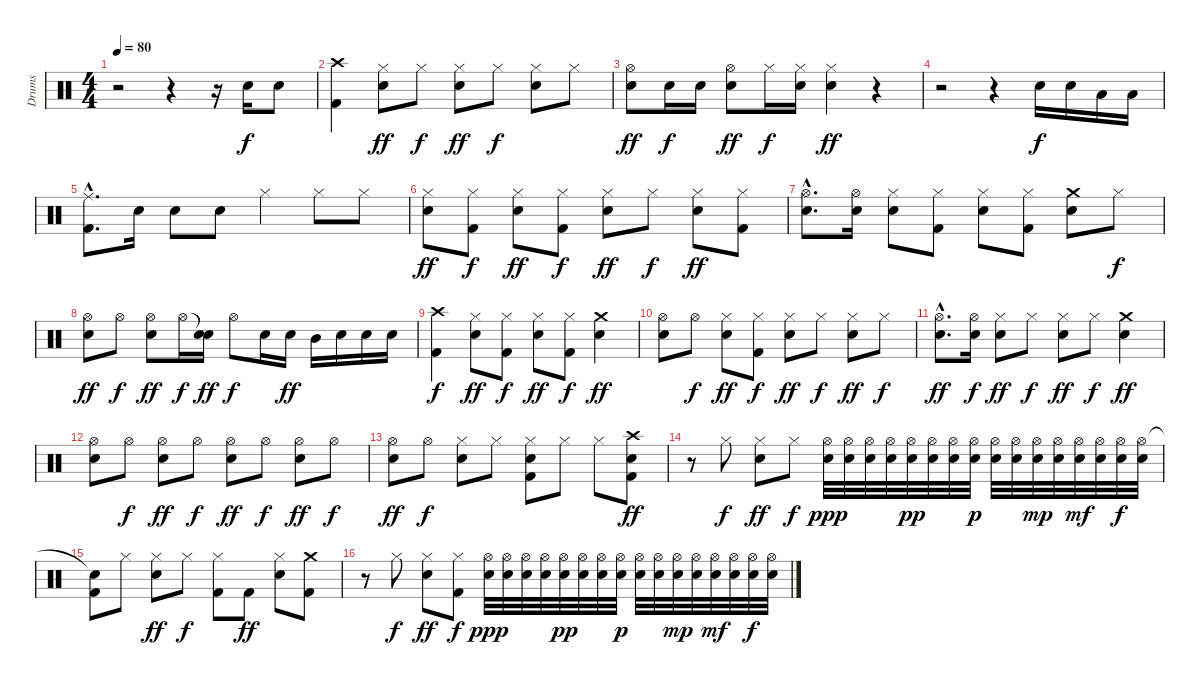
\track ("Drums" "Drums") {instrument percussion}
\staff {score}
\articulation defaults
\ts (4 4)
\tempo 80
\clef neutral
\ks c
r.2{dy f} r.4 r.16 "Electric Snare (hit)".16 "Electric Snare (hit)".8 |
("Crash high (hit)" "Kick (hit) 2").4 ("Hi-Hat (closed)" "Electric Snare (hit)").8{dy ff} "Hi-Hat (closed)".8{dy f} ("Hi-Hat (closed)" "Electric Snare (hit)").8{dy ff} "Hi-Hat (closed)".8{dy f} ("Hi-Hat (closed)" "Electric Snare (hit)").8 "Hi-Hat (closed)".8 |
("Hi-Hat (open)" "Electric Snare (hit)").8{dy ff} "Electric Snare (hit)".16{dy f} "Electric Snare (hit)".16 ("Hi-Hat (open)" "Electric Snare (hit)").8{dy ff} "Hi-Hat (closed)".16{dy f} ("Hi-Hat (closed)" "Electric Snare (hit)").16 ("Hi-Hat (closed)" "Electric Snare (hit)").4{dy ff} r.4 |
r.2 r.4 "Electric Snare (hit)".16{dy f} "Electric Snare (hit)".16 "Low Tom (hit)".16 "Low Tom (hit)".16 |
("Ride (middle)"{hac} "Kick (hit) 2"{hac}).8{d} "Electric Snare (hit)".16 "Electric Snare (hit)".8 "Electric Snare (hit)".8 "Hi-Hat (closed)".4 "Hi-Hat (closed)".8 "Hi-Hat (closed)".8 |
("Hi-Hat (closed)" "Electric Snare (hit)").8{dy ff} ("Hi-Hat (closed)" "Kick (hit) 2").8{dy f} ("Hi-Hat (closed)" "Electric Snare (hit)").8{dy ff} ("Hi-Hat (closed)" "Kick (hit) 2").8{dy f} ("Hi-Hat (closed)" "Electric Snare (hit)").8{dy ff} "Hi-Hat (closed)".8{dy f} ("Hi-Hat (closed)" "Electric Snare (hit)").8{dy ff} ("Hi-Hat (closed)" "Kick (hit) 2").8 |
("Hi-Hat (open)"{hac} "Electric Snare (hit)"{hac}).8{d} ("Hi-Hat (open)" "Electric Snare (hit)").16 ("Hi-Hat (closed)" "Electric Snare (hit)").8 ("Hi-Hat (closed)" "Kick (hit) 2").8 ("Hi-Hat (closed)" "Electric Snare (hit)").8 ("Hi-Hat (closed)" "Kick (hit) 2").8 ("Crash medium (hit)" "Electric Snare (hit)").8 "Hi-Hat (closed)".8{dy f} |
("Hi-Hat (open)" "Electric Snare (hit)").8{dy ff} "Hi-Hat (open)".8{dy f} ("Hi-Hat (open)" "Electric Snare (hit)").8{dy ff} "Hi-Hat (open)".16{dy f} ("Snare (hit)"{t} "Electric Snare (hit)").16{dy ff} "Hi-Hat (open)".8{dy f} "Electric Snare (hit)".16 "Electric Snare (hit)".16{dy ff} "Mid Tom (hit)".16 "Electric Snare (hit)".16 "Electric Snare (hit)".16 "Electric Snare (hit)".16 |
("Crash high (hit)" "Kick (hit) 2").4{dy f} ("Hi-Hat (closed)" "Electric Snare (hit)").8{dy ff} ("Hi-Hat (closed)" "Kick (hit) 2").8{dy f} ("Hi-Hat (closed)" "Electric Snare (hit)").8{dy ff} ("Hi-Hat (closed)" "Kick (hit) 2").8{dy f} ("Crash medium (hit)" "Electric Snare (hit)").4{dy ff} |
("Hi-Hat (open)" "Electric Snare (hit)").8 "Hi-Hat (open)".8{dy f} ("Hi-Hat (closed)" "Electric Snare (hit)").8{dy ff} ("Hi-Hat (closed)" "Kick (hit) 2").8{dy f} ("Hi-Hat (closed)" "Electric Snare (hit)").8{dy ff} "Hi-Hat (closed)".8{dy f} ("Hi-Hat (closed)" "Electric Snare (hit)").8{dy ff} "Hi-Hat (closed)".8{dy f} |
("Hi-Hat (open)"{hac} "Electric Snare (hit)"{hac}).8{d dy ff} ("Hi-Hat (open)" "Electric Snare (hit)").16{dy f} ("Hi-Hat (closed)" "Electric Snare (hit)").8{dy ff} "Hi-Hat (closed)".8{dy f} ("Hi-Hat (closed)" "Electric Snare (hit)").8{dy ff} "Hi-Hat (closed)".8{dy f} ("Crash medium (hit)" "Electric Snare (hit)").4{dy ff} |
("Hi-Hat (open)" "Electric Snare (hit)").8 "Hi-Hat (open)".8{dy f} ("Hi-Hat (open)" "Electric Snare (hit)").8{dy ff} "Hi-Hat (open)".8{dy f} ("Hi-Hat (open)" "Electric Snare (hit)").8{dy ff} "Hi-Hat (open)".8{dy f} ("Hi-Hat (open)" "Electric Snare (hit)").8{dy ff} "Hi-Hat (open)".8{dy f} |
("Hi-Hat (open)" "Electric Snare (hit)").8{dy ff} "Hi-Hat (open)".8{dy f} ("Hi-Hat (closed)" "Electric Snare (hit)").8 "Hi-Hat (closed)".8 ("Hi-Hat (closed)" "Electric Snare (hit)" "Kick (hit) 2").8 "Hi-Hat (closed)".8 "Hi-Hat (closed)".8 ("Crash high (hit)" "Electric Snare (hit)" "Kick (hit) 2").8{dy ff} |
r.8 "Hi-Hat (closed)".8{dy f} ("Hi-Hat (closed)" "Electric Snare (hit)").8{dy ff} "Hi-Hat (closed)".8{dy f} ("Hi-Hat (open)" "Electric Snare (hit)").32{dy ppp} ("Hi-Hat (open)" "Electric Snare (hit)").32 ("Hi-Hat (open)" "Electric Snare (hit)").32 ("Hi-Hat (open)" "Electric Snare (hit)").32 ("Hi-Hat (open)" "Electric Snare (hit)").32{dy pp} ("Hi-Hat (open)" "Electric Snare (hit)").32 ("Hi-Hat (open)" "Electric Snare (hit)").32 ("Hi-Hat (open)" "Electric Snare (hit)").32{dy p} ("Hi-Hat (open)" "Electric Snare (hit)").32 ("Hi-Hat (open)" "Electric Snare (hit)").32 ("Hi-Hat (open)" "Electric Snare (hit)").32{dy mp} ("Hi-Hat (open)" "Electric Snare (hit)").32 ("Hi-Hat (open)" "Electric Snare (hit)").32{dy mf} ("Hi-Hat (open)" "Electric Snare (hit)").32 ("Hi-Hat (open)" "Electric Snare (hit)").32{dy f} ("Hi-Hat (open)" "Electric Snare (hit)").32 |
("Snare (hit)"{t} "Kick (hit) 2").8 "Hi-Hat (closed)".8 ("Hi-Hat (closed)" "Electric Snare (hit)").8{dy ff} "Hi-Hat (closed)".8{dy f} ("Hi-Hat (closed)" "Kick (hit) 2").8 "Kick (hit) 2".8{dy ff} ("Hi-Hat (closed)" "Electric Snare (hit)").8 ("Crash medium (hit)" "Kick (hit) 2").8 |
r.8 "Hi-Hat (closed)".8{dy f} ("Hi-Hat (closed)" "Electric Snare (hit)").8{dy ff} ("Hi-Hat (closed)" "Kick (hit) 2").8{dy f} ("Hi-Hat (open)" "Electric Snare (hit)").32{dy ppp} ("Hi-Hat (open)" "Electric Snare (hit)").32 ("Hi-Hat (open)" "Electric Snare (hit)").32 ("Hi-Hat (open)" "Electric Snare (hit)").32 ("Hi-Hat (open)" "Electric Snare (hit)").32{dy pp} ("Hi-Hat (open)" "Electric Snare (hit)").32 ("Hi-Hat (open)" "Electric Snare (hit)").32 ("Hi-Hat (open)" "Electric Snare (hit)").32{dy p} ("Hi-Hat (open)" "Electric Snare (hit)").32 ("Hi-Hat (open)" "Electric Snare (hit)").32 ("Hi-Hat (open)" "Electric Snare (hit)").32{dy mp} ("Hi-Hat (open)" "Electric Snare (hit)").32 ("Hi-Hat (open)" "Electric Snare (hit)").32{dy mf} ("Hi-Hat (open)" "Electric Snare (hit)").32 ("Hi-Hat (open)" "Electric Snare (hit)").32{dy f} ("Hi-Hat (open)" "Electric Snare (hit)").32
